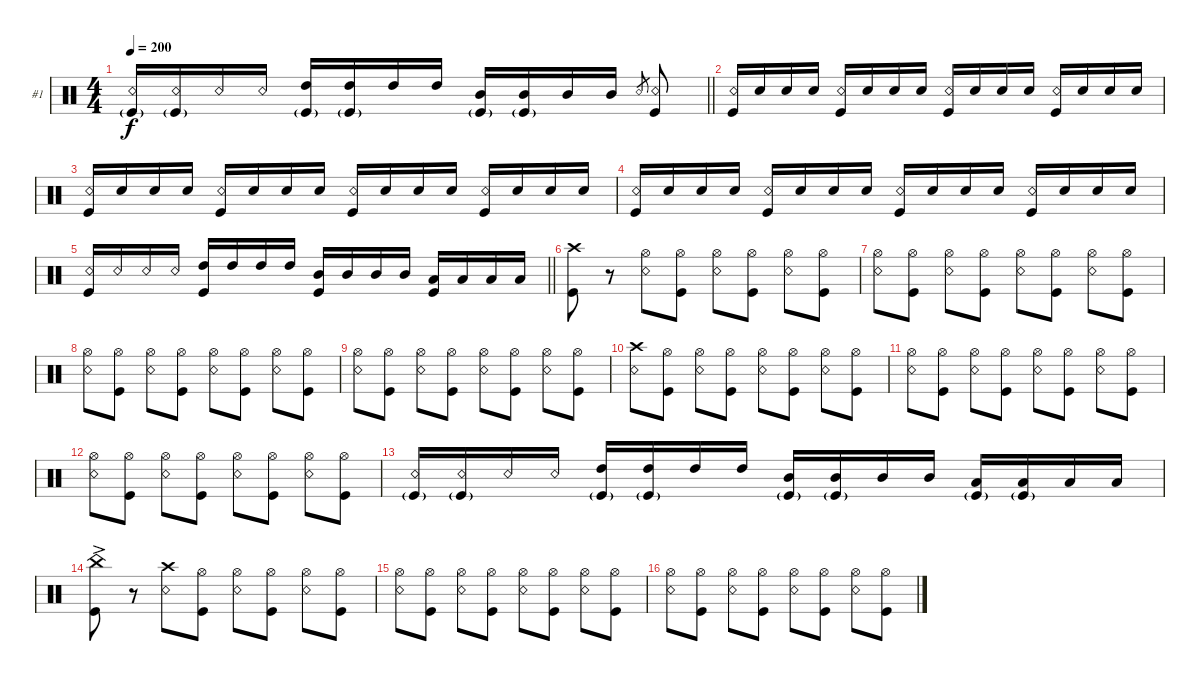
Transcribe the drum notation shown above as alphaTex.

\bracketExtendMode groupsimilarinstruments
\firstSystemTrackNameOrientation horizontal
\otherSystemsTrackNameOrientation horizontal
\track ("Joey Jordison" "#1") {instrument percussion}
\staff {score}
\articulation defaults
\ts (4 4)
\tempo 200
\clef neutral
\barLineRight lightlight
\ks c
("Snare (rim shot)" "Kick (hit)"{g}).16{dy f} ("Snare (rim shot)" "Kick (hit)"{g}).16 "Snare (rim shot)".16 "Snare (rim shot)".16 ("High Tom (hit)" "Kick (hit)"{g}).16 ("High Tom (hit)" "Kick (hit)"{g}).16 "High Tom (hit)".16 "High Tom (hit)".16 ("Mid Tom (hit)" "Kick (hit)"{g}).16 ("Mid Tom (hit)" "Kick (hit)"{g}).16 "Mid Tom (hit)".16 "Mid Tom (hit)".16 "Snare (rim shot)".8{gr} ("Snare (rim shot)" "Kick (hit)").8 |
("Snare (rim shot)" "Kick (hit)").16 "Snare (hit) 2".16 "Snare (hit) 2".16 "Snare (hit) 2".16 ("Snare (rim shot)" "Kick (hit)").16 "Snare (hit) 2".16 "Snare (hit) 2".16 "Snare (hit) 2".16 ("Snare (rim shot)" "Kick (hit)").16 "Snare (hit) 2".16 "Snare (hit) 2".16 "Snare (hit) 2".16 ("Snare (rim shot)" "Kick (hit)").16 "Snare (hit) 2".16 "Snare (hit) 2".16 "Snare (hit) 2".16 |
("Snare (rim shot)" "Kick (hit)").16 "Snare (hit) 2".16 "Snare (hit) 2".16 "Snare (hit) 2".16 ("Snare (rim shot)" "Kick (hit)").16 "Snare (hit) 2".16 "Snare (hit) 2".16 "Snare (hit) 2".16 ("Snare (rim shot)" "Kick (hit)").16 "Snare (hit) 2".16 "Snare (hit) 2".16 "Snare (hit) 2".16 ("Snare (rim shot)" "Kick (hit)").16 "Snare (hit) 2".16 "Snare (hit) 2".16 "Snare (hit) 2".16 |
("Snare (rim shot)" "Kick (hit)").16 "Snare (hit) 2".16 "Snare (hit) 2".16 "Snare (hit) 2".16 ("Snare (rim shot)" "Kick (hit)").16 "Snare (hit) 2".16 "Snare (hit) 2".16 "Snare (hit) 2".16 ("Snare (rim shot)" "Kick (hit)").16 "Snare (hit) 2".16 "Snare (hit) 2".16 "Snare (hit) 2".16 ("Snare (rim shot)" "Kick (hit)").16 "Snare (hit) 2".16 "Snare (hit) 2".16 "Snare (hit) 2".16 |
\barLineRight lightlight
("Snare (rim shot)" "Kick (hit)").16 "Snare (rim shot)".16 "Snare (rim shot)".16 "Snare (rim shot)".16 ("High Tom (hit)" "Kick (hit)").16 "High Tom (hit)".16 "High Tom (hit)".16 "High Tom (hit)".16 ("Mid Tom (hit)" "Kick (hit)").16 "Mid Tom (hit)".16 "Mid Tom (hit)".16 "Mid Tom (hit)".16 ("Low Tom (hit)" "Kick (hit)").16 "Low Tom (hit)".16 "Low Tom (hit)".16 "Low Tom (hit)".16 |
("Kick (hit)" "Crash high (hit)").8 r.8 ("Hi-Hat (open)" "Snare (rim shot)").8 ("Hi-Hat (open)" "Kick (hit)").8 ("Hi-Hat (open)" "Snare (rim shot)").8 ("Hi-Hat (open)" "Kick (hit)").8 ("Hi-Hat (open)" "Snare (rim shot)").8 ("Hi-Hat (open)" "Kick (hit)").8 |
("Snare (rim shot)" "Hi-Hat (open)").8 ("Kick (hit)" "Hi-Hat (open)").8 ("Hi-Hat (open)" "Snare (rim shot)").8 ("Hi-Hat (open)" "Kick (hit)").8 ("Hi-Hat (open)" "Snare (rim shot)").8 ("Hi-Hat (open)" "Kick (hit)").8 ("Hi-Hat (open)" "Snare (rim shot)").8 ("Hi-Hat (open)" "Kick (hit)").8 |
("Snare (rim shot)" "Hi-Hat (open)").8 ("Kick (hit)" "Hi-Hat (open)").8 ("Hi-Hat (open)" "Snare (rim shot)").8 ("Hi-Hat (open)" "Kick (hit)").8 ("Hi-Hat (open)" "Snare (rim shot)").8 ("Hi-Hat (open)" "Kick (hit)").8 ("Hi-Hat (open)" "Snare (rim shot)").8 ("Hi-Hat (open)" "Kick (hit)").8 |
("Snare (rim shot)" "Hi-Hat (open)").8 ("Kick (hit)" "Hi-Hat (open)").8 ("Hi-Hat (open)" "Snare (rim shot)").8 ("Hi-Hat (open)" "Kick (hit)").8 ("Hi-Hat (open)" "Snare (rim shot)").8 ("Hi-Hat (open)" "Kick (hit)").8 ("Hi-Hat (open)" "Snare (rim shot)").8 ("Hi-Hat (open)" "Kick (hit)").8 |
("Snare (rim shot)" "Crash high (hit)").8 ("Kick (hit)" "Hi-Hat (open)").8 ("Hi-Hat (open)" "Snare (rim shot)").8 ("Hi-Hat (open)" "Kick (hit)").8 ("Hi-Hat (open)" "Snare (rim shot)").8 ("Hi-Hat (open)" "Kick (hit)").8 ("Hi-Hat (open)" "Snare (rim shot)").8 ("Hi-Hat (open)" "Kick (hit)").8 |
("Snare (rim shot)" "Hi-Hat (open)").8 ("Kick (hit)" "Hi-Hat (open)").8 ("Hi-Hat (open)" "Snare (rim shot)").8 ("Hi-Hat (open)" "Kick (hit)").8 ("Hi-Hat (open)" "Snare (rim shot)").8 ("Hi-Hat (open)" "Kick (hit)").8 ("Hi-Hat (open)" "Snare (rim shot)").8 ("Hi-Hat (open)" "Kick (hit)").8 |
("Snare (rim shot)" "Hi-Hat (open)").8 ("Kick (hit)" "Hi-Hat (open)").8 ("Hi-Hat (open)" "Snare (rim shot)").8 ("Hi-Hat (open)" "Kick (hit)").8 ("Hi-Hat (open)" "Snare (rim shot)").8 ("Hi-Hat (open)" "Kick (hit)").8 ("Hi-Hat (open)" "Snare (rim shot)").8 ("Hi-Hat (open)" "Kick (hit)").8 |
("Snare (rim shot)" "Kick (hit)"{g}).16 ("Snare (rim shot)" "Kick (hit)"{g}).16 "Snare (rim shot)".16 "Snare (rim shot)".16 ("High Tom (hit)" "Kick (hit)"{g}).16 ("High Tom (hit)" "Kick (hit)"{g}).16 "High Tom (hit)".16 "High Tom (hit)".16 ("Mid Tom (hit)" "Kick (hit)"{g}).16 ("Mid Tom (hit)" "Kick (hit)"{g}).16 "Mid Tom (hit)".16 "Mid Tom (hit)".16 ("Low Tom (hit)" "Kick (hit)"{g}).16 ("Low Tom (hit)" "Kick (hit)"{g}).16 "Low Tom (hit)".16 "Low Tom (hit)".16 |
("Kick (hit)" "China (hit)"{ac}).8 r.8 ("Snare (rim shot)" "Crash high (hit)").8 ("Hi-Hat (open)" "Kick (hit)").8 ("Hi-Hat (open)" "Snare (rim shot)").8 ("Hi-Hat (open)" "Kick (hit)").8 ("Hi-Hat (open)" "Snare (rim shot)").8 ("Hi-Hat (open)" "Kick (hit)").8 |
("Snare (rim shot)" "Hi-Hat (open)").8 ("Kick (hit)" "Hi-Hat (open)").8 ("Hi-Hat (open)" "Snare (rim shot)").8 ("Hi-Hat (open)" "Kick (hit)").8 ("Hi-Hat (open)" "Snare (rim shot)").8 ("Hi-Hat (open)" "Kick (hit)").8 ("Hi-Hat (open)" "Snare (rim shot)").8 ("Hi-Hat (open)" "Kick (hit)").8 |
("Snare (rim shot)" "Hi-Hat (open)").8 ("Kick (hit)" "Hi-Hat (open)").8 ("Hi-Hat (open)" "Snare (rim shot)").8 ("Hi-Hat (open)" "Kick (hit)").8 ("Hi-Hat (open)" "Snare (rim shot)").8 ("Hi-Hat (open)" "Kick (hit)").8 ("Hi-Hat (open)" "Snare (rim shot)").8 ("Hi-Hat (open)" "Kick (hit)").8
